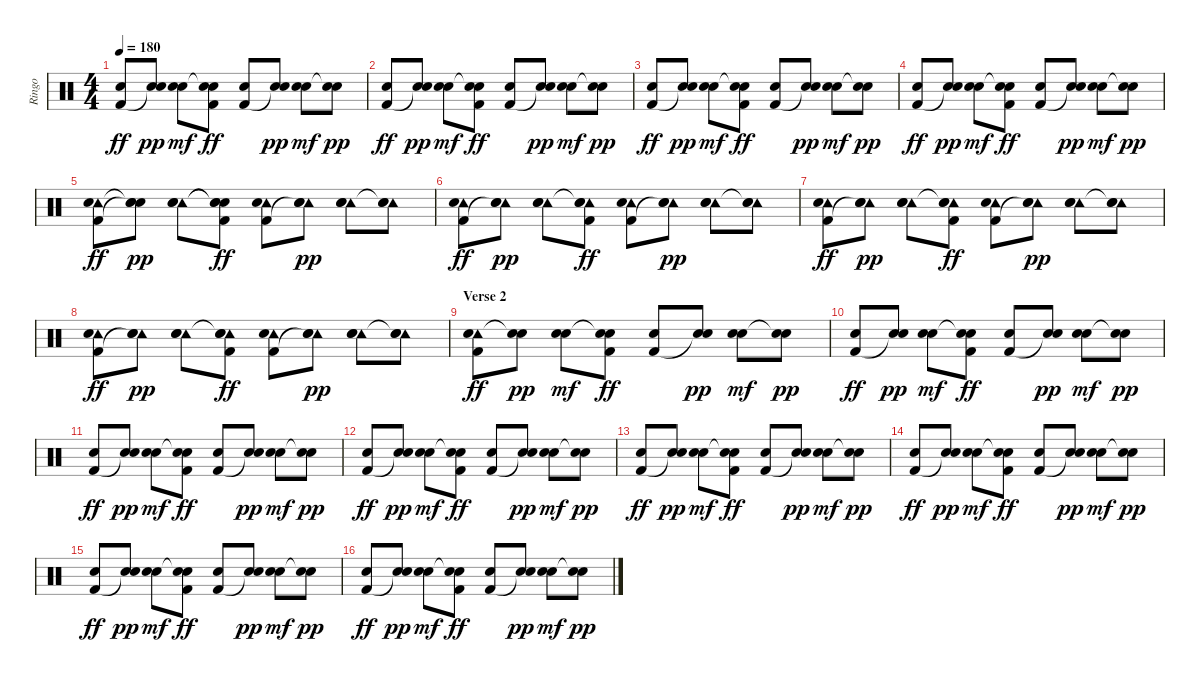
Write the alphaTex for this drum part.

\track ("Ringo" "Ringo") {instrument percussion}
\staff {score}
\articulation defaults
\ts (4 4)
\tempo 180
\clef neutral
\ks c
("Hand Clap (hit)" "Kick (hit) 2").8{dy ff} ("Hand Clap (hit)" "Snare (hit)"{t}).8{dy pp} ("Hand Clap (hit)" "Snare (hit) 2").8{dy mf} ("Hand Clap (hit)" "Snare (hit)"{t} "Kick (hit) 2").8{dy ff} ("Hand Clap (hit)" "Kick (hit) 2").8 ("Hand Clap (hit)" "Snare (hit)"{t}).8{dy pp} ("Hand Clap (hit)" "Snare (hit) 2").8{dy mf} ("Hand Clap (hit)" "Snare (hit)"{t}).8{dy pp} |
("Hand Clap (hit)" "Kick (hit) 2").8{dy ff} ("Hand Clap (hit)" "Snare (hit)"{t}).8{dy pp} ("Hand Clap (hit)" "Snare (hit) 2").8{dy mf} ("Hand Clap (hit)" "Snare (hit)"{t} "Kick (hit) 2").8{dy ff} ("Hand Clap (hit)" "Kick (hit) 2").8 ("Hand Clap (hit)" "Snare (hit)"{t}).8{dy pp} ("Hand Clap (hit)" "Snare (hit) 2").8{dy mf} ("Hand Clap (hit)" "Snare (hit)"{t}).8{dy pp} |
("Hand Clap (hit)" "Kick (hit) 2").8{dy ff} ("Hand Clap (hit)" "Snare (hit)"{t}).8{dy pp} ("Hand Clap (hit)" "Snare (hit) 2").8{dy mf} ("Hand Clap (hit)" "Snare (hit)"{t} "Kick (hit) 2").8{dy ff} ("Hand Clap (hit)" "Kick (hit) 2").8 ("Hand Clap (hit)" "Snare (hit)"{t}).8{dy pp} ("Hand Clap (hit)" "Snare (hit) 2").8{dy mf} ("Hand Clap (hit)" "Snare (hit)"{t}).8{dy pp} |
("Hand Clap (hit)" "Kick (hit) 2").8{dy ff} ("Hand Clap (hit)" "Snare (hit)"{t}).8{dy pp} ("Hand Clap (hit)" "Snare (hit) 2").8{dy mf} ("Hand Clap (hit)" "Snare (hit)"{t} "Kick (hit) 2").8{dy ff} ("Hand Clap (hit)" "Kick (hit) 2").8 ("Hand Clap (hit)" "Snare (hit)"{t}).8{dy pp} ("Hand Clap (hit)" "Snare (hit) 2").8{dy mf} ("Hand Clap (hit)" "Snare (hit)"{t}).8{dy pp} |
("Tambourine (hit)" "Hand Clap (hit)" "Kick (hit) 2").8{dy ff} ("Snare (hit)"{t} "Hand Clap (hit)" "Snare (hit)"{t}).8{dy pp} ("Tambourine (hit)" "Hand Clap (hit)" "Snare (hit) 2").8 ("Snare (hit)"{t} "Hand Clap (hit)" "Snare (hit)"{t} "Kick (hit) 2").8{dy ff} ("Tambourine (hit)" "Hand Clap (hit)" "Kick (hit) 2").8 ("Tambourine (hit)" "Hand Clap (hit)" "Snare (hit)"{t}).8{dy pp} ("Tambourine (hit)" "Hand Clap (hit)" "Snare (hit) 2").8 ("Tambourine (hit)" "Hand Clap (hit)" "Snare (hit)"{t}).8 |
("Tambourine (hit)" "Hand Clap (hit)" "Kick (hit) 2").8{dy ff} ("Tambourine (hit)" "Hand Clap (hit)" "Snare (hit)"{t}).8{dy pp} ("Tambourine (hit)" "Hand Clap (hit)" "Snare (hit) 2").8 ("Tambourine (hit)" "Hand Clap (hit)" "Snare (hit)"{t} "Kick (hit) 2").8{dy ff} ("Tambourine (hit)" "Hand Clap (hit)" "Kick (hit) 2").8 ("Tambourine (hit)" "Hand Clap (hit)" "Snare (hit)"{t}).8{dy pp} ("Tambourine (hit)" "Hand Clap (hit)" "Snare (hit) 2").8 ("Tambourine (hit)" "Hand Clap (hit)" "Snare (hit)"{t}).8 |
("Tambourine (hit)" "Hand Clap (hit)" "Kick (hit) 2").8{dy ff} ("Tambourine (hit)" "Hand Clap (hit)" "Snare (hit)"{t}).8{dy pp} ("Tambourine (hit)" "Hand Clap (hit)" "Snare (hit) 2").8 ("Tambourine (hit)" "Hand Clap (hit)" "Snare (hit)"{t} "Kick (hit) 2").8{dy ff} ("Tambourine (hit)" "Hand Clap (hit)" "Kick (hit) 2").8 ("Tambourine (hit)" "Hand Clap (hit)" "Snare (hit)"{t}).8{dy pp} ("Tambourine (hit)" "Hand Clap (hit)" "Snare (hit) 2").8 ("Tambourine (hit)" "Hand Clap (hit)" "Snare (hit)"{t}).8 |
("Tambourine (hit)" "Hand Clap (hit)" "Kick (hit) 2").8{dy ff} ("Tambourine (hit)" "Hand Clap (hit)" "Snare (hit)"{t}).8{dy pp} ("Tambourine (hit)" "Hand Clap (hit)" "Snare (hit) 2").8 ("Tambourine (hit)" "Hand Clap (hit)" "Snare (hit)"{t} "Kick (hit) 2").8{dy ff} ("Tambourine (hit)" "Hand Clap (hit)" "Kick (hit) 2").8 ("Tambourine (hit)" "Hand Clap (hit)" "Snare (hit)"{t}).8{dy pp} ("Tambourine (hit)" "Hand Clap (hit)" "Snare (hit) 2").8 ("Tambourine (hit)" "Hand Clap (hit)" "Snare (hit)"{t}).8 |
\section ("" "Verse 2")
("Tambourine (hit)" "Hand Clap (hit)" "Kick (hit) 2").8{dy ff} ("Hand Clap (hit)" "Snare (hit)"{t}).8{dy pp} ("Hand Clap (hit)" "Snare (hit) 2").8{dy mf} ("Hand Clap (hit)" "Snare (hit)"{t} "Kick (hit) 2").8{dy ff} ("Hand Clap (hit)" "Kick (hit) 2").8 ("Hand Clap (hit)" "Snare (hit)"{t}).8{dy pp} ("Hand Clap (hit)" "Snare (hit) 2").8{dy mf} ("Hand Clap (hit)" "Snare (hit)"{t}).8{dy pp} |
("Hand Clap (hit)" "Kick (hit) 2").8{dy ff} ("Hand Clap (hit)" "Snare (hit)"{t}).8{dy pp} ("Hand Clap (hit)" "Snare (hit) 2").8{dy mf} ("Hand Clap (hit)" "Snare (hit)"{t} "Kick (hit) 2").8{dy ff} ("Hand Clap (hit)" "Kick (hit) 2").8 ("Hand Clap (hit)" "Snare (hit)"{t}).8{dy pp} ("Hand Clap (hit)" "Snare (hit) 2").8{dy mf} ("Hand Clap (hit)" "Snare (hit)"{t}).8{dy pp} |
("Hand Clap (hit)" "Kick (hit) 2").8{dy ff} ("Hand Clap (hit)" "Snare (hit)"{t}).8{dy pp} ("Hand Clap (hit)" "Snare (hit) 2").8{dy mf} ("Hand Clap (hit)" "Snare (hit)"{t} "Kick (hit) 2").8{dy ff} ("Hand Clap (hit)" "Kick (hit) 2").8 ("Hand Clap (hit)" "Snare (hit)"{t}).8{dy pp} ("Hand Clap (hit)" "Snare (hit) 2").8{dy mf} ("Hand Clap (hit)" "Snare (hit)"{t}).8{dy pp} |
("Hand Clap (hit)" "Kick (hit) 2").8{dy ff} ("Hand Clap (hit)" "Snare (hit)"{t}).8{dy pp} ("Hand Clap (hit)" "Snare (hit) 2").8{dy mf} ("Hand Clap (hit)" "Snare (hit)"{t} "Kick (hit) 2").8{dy ff} ("Hand Clap (hit)" "Kick (hit) 2").8 ("Hand Clap (hit)" "Snare (hit)"{t}).8{dy pp} ("Hand Clap (hit)" "Snare (hit) 2").8{dy mf} ("Hand Clap (hit)" "Snare (hit)"{t}).8{dy pp} |
("Hand Clap (hit)" "Kick (hit) 2").8{dy ff} ("Hand Clap (hit)" "Snare (hit)"{t}).8{dy pp} ("Hand Clap (hit)" "Snare (hit) 2").8{dy mf} ("Hand Clap (hit)" "Snare (hit)"{t} "Kick (hit) 2").8{dy ff} ("Hand Clap (hit)" "Kick (hit) 2").8 ("Hand Clap (hit)" "Snare (hit)"{t}).8{dy pp} ("Hand Clap (hit)" "Snare (hit) 2").8{dy mf} ("Hand Clap (hit)" "Snare (hit)"{t}).8{dy pp} |
("Hand Clap (hit)" "Kick (hit) 2").8{dy ff} ("Hand Clap (hit)" "Snare (hit)"{t}).8{dy pp} ("Hand Clap (hit)" "Snare (hit) 2").8{dy mf} ("Hand Clap (hit)" "Snare (hit)"{t} "Kick (hit) 2").8{dy ff} ("Hand Clap (hit)" "Kick (hit) 2").8 ("Hand Clap (hit)" "Snare (hit)"{t}).8{dy pp} ("Hand Clap (hit)" "Snare (hit) 2").8{dy mf} ("Hand Clap (hit)" "Snare (hit)"{t}).8{dy pp} |
("Hand Clap (hit)" "Kick (hit) 2").8{dy ff} ("Hand Clap (hit)" "Snare (hit)"{t}).8{dy pp} ("Hand Clap (hit)" "Snare (hit) 2").8{dy mf} ("Hand Clap (hit)" "Snare (hit)"{t} "Kick (hit) 2").8{dy ff} ("Hand Clap (hit)" "Kick (hit) 2").8 ("Hand Clap (hit)" "Snare (hit)"{t}).8{dy pp} ("Hand Clap (hit)" "Snare (hit) 2").8{dy mf} ("Hand Clap (hit)" "Snare (hit)"{t}).8{dy pp} |
("Hand Clap (hit)" "Kick (hit) 2").8{dy ff} ("Hand Clap (hit)" "Snare (hit)"{t}).8{dy pp} ("Hand Clap (hit)" "Snare (hit) 2").8{dy mf} ("Hand Clap (hit)" "Snare (hit)"{t} "Kick (hit) 2").8{dy ff} ("Hand Clap (hit)" "Kick (hit) 2").8 ("Hand Clap (hit)" "Snare (hit)"{t}).8{dy pp} ("Hand Clap (hit)" "Snare (hit) 2").8{dy mf} ("Hand Clap (hit)" "Snare (hit)"{t}).8{dy pp}
